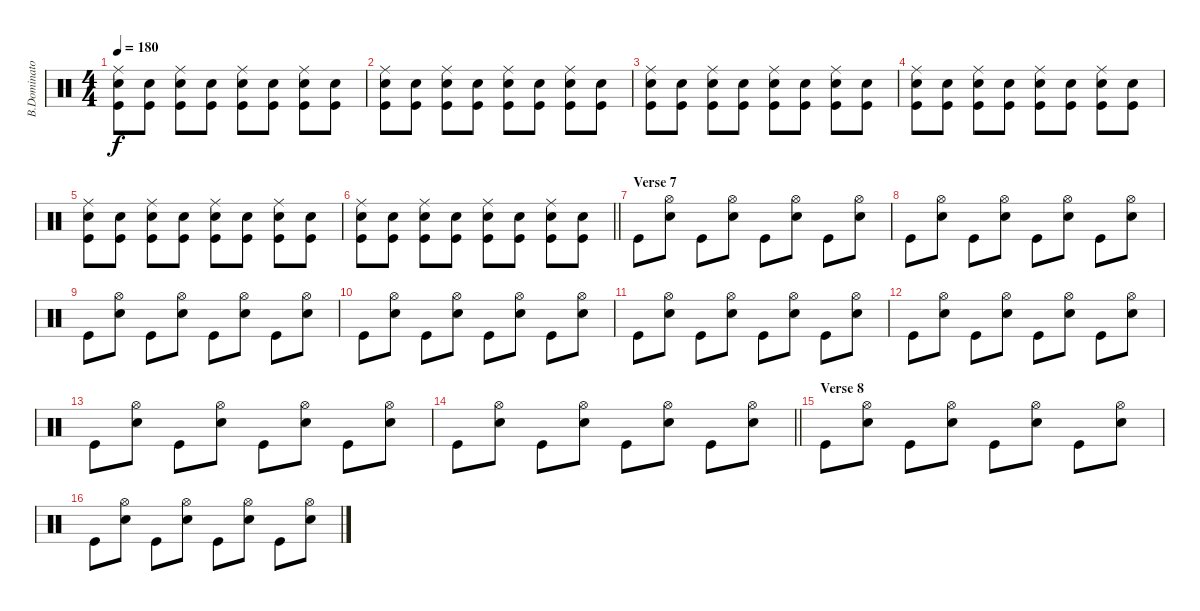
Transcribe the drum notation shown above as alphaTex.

\track ("B.Dominator" "B.Dominato") {instrument percussion}
\staff {score}
\articulation defaults
\ts (4 4)
\tempo 180
\clef neutral
\ks c
("Ride (middle)" "Snare (hit) 2" "Kick (hit)").8{dy f} ("Snare (hit) 2" "Kick (hit)").8 ("Ride (middle)" "Snare (hit) 2" "Kick (hit)").8 ("Snare (hit) 2" "Kick (hit)").8 ("Ride (middle)" "Snare (hit) 2" "Kick (hit)").8 ("Snare (hit) 2" "Kick (hit)").8 ("Ride (middle)" "Snare (hit) 2" "Kick (hit)").8 ("Snare (hit) 2" "Kick (hit)").8 |
("Ride (middle)" "Snare (hit) 2" "Kick (hit)").8 ("Snare (hit) 2" "Kick (hit)").8 ("Ride (middle)" "Snare (hit) 2" "Kick (hit)").8 ("Snare (hit) 2" "Kick (hit)").8 ("Ride (middle)" "Snare (hit) 2" "Kick (hit)").8 ("Snare (hit) 2" "Kick (hit)").8 ("Ride (middle)" "Snare (hit) 2" "Kick (hit)").8 ("Snare (hit) 2" "Kick (hit)").8 |
("Ride (middle)" "Snare (hit) 2" "Kick (hit)").8 ("Snare (hit) 2" "Kick (hit)").8 ("Ride (middle)" "Snare (hit) 2" "Kick (hit)").8 ("Snare (hit) 2" "Kick (hit)").8 ("Ride (middle)" "Snare (hit) 2" "Kick (hit)").8 ("Snare (hit) 2" "Kick (hit)").8 ("Ride (middle)" "Snare (hit) 2" "Kick (hit)").8 ("Snare (hit) 2" "Kick (hit)").8 |
("Ride (middle)" "Snare (hit) 2" "Kick (hit)").8 ("Snare (hit) 2" "Kick (hit)").8 ("Ride (middle)" "Snare (hit) 2" "Kick (hit)").8 ("Snare (hit) 2" "Kick (hit)").8 ("Ride (middle)" "Snare (hit) 2" "Kick (hit)").8 ("Snare (hit) 2" "Kick (hit)").8 ("Ride (middle)" "Snare (hit) 2" "Kick (hit)").8 ("Snare (hit) 2" "Kick (hit)").8 |
("Ride (middle)" "Snare (hit) 2" "Kick (hit)").8 ("Snare (hit) 2" "Kick (hit)").8 ("Ride (middle)" "Snare (hit) 2" "Kick (hit)").8 ("Snare (hit) 2" "Kick (hit)").8 ("Ride (middle)" "Snare (hit) 2" "Kick (hit)").8 ("Snare (hit) 2" "Kick (hit)").8 ("Ride (middle)" "Snare (hit) 2" "Kick (hit)").8 ("Snare (hit) 2" "Kick (hit)").8 |
\barLineRight lightlight
("Ride (middle)" "Snare (hit) 2" "Kick (hit)").8 ("Snare (hit) 2" "Kick (hit)").8 ("Ride (middle)" "Snare (hit) 2" "Kick (hit)").8 ("Snare (hit) 2" "Kick (hit)").8 ("Ride (middle)" "Snare (hit) 2" "Kick (hit)").8 ("Snare (hit) 2" "Kick (hit)").8 ("Ride (middle)" "Snare (hit) 2" "Kick (hit)").8 ("Snare (hit) 2" "Kick (hit)").8 |
\section ("" "Verse 7")
"Kick (hit)".8 ("Hi-Hat (open)" "Snare (hit) 2").8 "Kick (hit)".8 ("Hi-Hat (open)" "Snare (hit) 2").8 "Kick (hit)".8 ("Hi-Hat (open)" "Snare (hit) 2").8 "Kick (hit)".8 ("Hi-Hat (open)" "Snare (hit) 2").8 |
"Kick (hit)".8 ("Hi-Hat (open)" "Snare (hit) 2").8 "Kick (hit)".8 ("Hi-Hat (open)" "Snare (hit) 2").8 "Kick (hit)".8 ("Hi-Hat (open)" "Snare (hit) 2").8 "Kick (hit)".8 ("Hi-Hat (open)" "Snare (hit) 2").8 |
"Kick (hit)".8 ("Hi-Hat (open)" "Snare (hit) 2").8 "Kick (hit)".8 ("Hi-Hat (open)" "Snare (hit) 2").8 "Kick (hit)".8 ("Hi-Hat (open)" "Snare (hit) 2").8 "Kick (hit)".8 ("Hi-Hat (open)" "Snare (hit) 2").8 |
"Kick (hit)".8 ("Hi-Hat (open)" "Snare (hit) 2").8 "Kick (hit)".8 ("Hi-Hat (open)" "Snare (hit) 2").8 "Kick (hit)".8 ("Hi-Hat (open)" "Snare (hit) 2").8 "Kick (hit)".8 ("Hi-Hat (open)" "Snare (hit) 2").8 |
"Kick (hit)".8 ("Hi-Hat (open)" "Snare (hit) 2").8 "Kick (hit)".8 ("Hi-Hat (open)" "Snare (hit) 2").8 "Kick (hit)".8 ("Hi-Hat (open)" "Snare (hit) 2").8 "Kick (hit)".8 ("Hi-Hat (open)" "Snare (hit) 2").8 |
"Kick (hit)".8 ("Hi-Hat (open)" "Snare (hit) 2").8 "Kick (hit)".8 ("Hi-Hat (open)" "Snare (hit) 2").8 "Kick (hit)".8 ("Hi-Hat (open)" "Snare (hit) 2").8 "Kick (hit)".8 ("Hi-Hat (open)" "Snare (hit) 2").8 |
"Kick (hit)".8 ("Hi-Hat (open)" "Snare (hit) 2").8 "Kick (hit)".8 ("Hi-Hat (open)" "Snare (hit) 2").8 "Kick (hit)".8 ("Hi-Hat (open)" "Snare (hit) 2").8 "Kick (hit)".8 ("Hi-Hat (open)" "Snare (hit) 2").8 |
\barLineRight lightlight "Kick (hit)".8
("Hi-Hat (open)" "Snare (hit) 2").8 "Kick (hit)".8 ("Hi-Hat (open)" "Snare (hit) 2").8 "Kick (hit)".8 ("Hi-Hat (open)" "Snare (hit) 2").8 "Kick (hit)".8 ("Hi-Hat (open)" "Snare (hit) 2").8 |
\section ("" "Verse 8")
"Kick (hit)".8 ("Hi-Hat (open)" "Snare (hit) 2").8 "Kick (hit)".8 ("Hi-Hat (open)" "Snare (hit) 2").8 "Kick (hit)".8 ("Hi-Hat (open)" "Snare (hit) 2").8 "Kick (hit)".8 ("Hi-Hat (open)" "Snare (hit) 2").8 |
"Kick (hit)".8 ("Hi-Hat (open)" "Snare (hit) 2").8 "Kick (hit)".8 ("Hi-Hat (open)" "Snare (hit) 2").8 "Kick (hit)".8 ("Hi-Hat (open)" "Snare (hit) 2").8 "Kick (hit)".8 ("Hi-Hat (open)" "Snare (hit) 2").8
